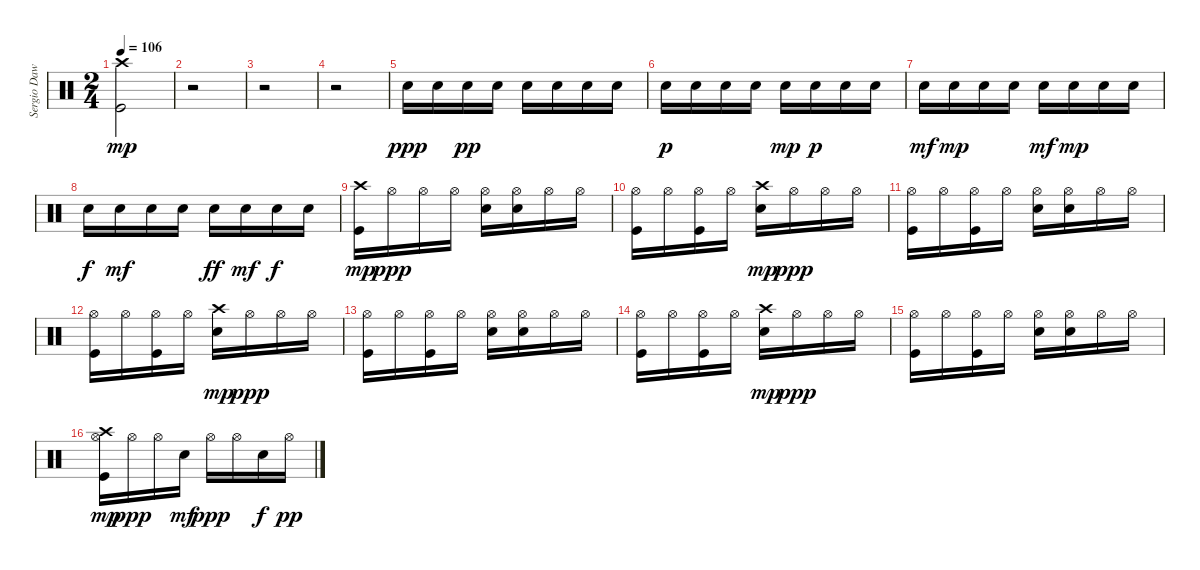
\track ("Sergio Dawi" "Sergio Daw") {instrument percussion}
\staff {score}
\articulation defaults
\ts (2 4)
\tempo 106
\clef neutral
\ks c
("Kick (hit)" "Crash high (hit)").2{dy mp} |
r.2 |
r.2 |
r.2 |
"Electric Snare (hit)".16{dy ppp} "Electric Snare (hit)".16 "Electric Snare (hit)".16{dy pp} "Electric Snare (hit)".16 "Electric Snare (hit)".16 "Electric Snare (hit)".16 "Electric Snare (hit)".16 "Electric Snare (hit)".16 |
"Electric Snare (hit)".16{dy p} "Electric Snare (hit)".16 "Electric Snare (hit)".16 "Electric Snare (hit)".16 "Electric Snare (hit)".16{dy mp} "Electric Snare (hit)".16{dy p} "Electric Snare (hit)".16 "Electric Snare (hit)".16 |
"Electric Snare (hit)".16{dy mf} "Electric Snare (hit)".16{dy mp} "Electric Snare (hit)".16 "Electric Snare (hit)".16 "Electric Snare (hit)".16{dy mf} "Electric Snare (hit)".16{dy mp} "Electric Snare (hit)".16 "Electric Snare (hit)".16 |
"Electric Snare (hit)".16{dy f} "Electric Snare (hit)".16{dy mf} "Electric Snare (hit)".16 "Electric Snare (hit)".16 "Electric Snare (hit)".16{dy ff} "Electric Snare (hit)".16{dy mf} "Electric Snare (hit)".16{dy f} "Electric Snare (hit)".16 |
("Kick (hit)" "Crash high (hit)").16{dy mp} "Hi-Hat (open)".16{dy ppp} "Hi-Hat (open)".16 "Hi-Hat (open)".16 ("Electric Snare (hit)" "Hi-Hat (open)").16 ("Electric Snare (hit)" "Hi-Hat (open)").16 "Hi-Hat (open)".16 "Hi-Hat (open)".16 |
("Kick (hit)" "Hi-Hat (open)").16 "Hi-Hat (open)".16 ("Kick (hit)" "Hi-Hat (open)").16 "Hi-Hat (open)".16 ("Electric Snare (hit)" "Crash high (hit)").16{dy mp} "Hi-Hat (open)".16{dy ppp} "Hi-Hat (open)".16 "Hi-Hat (open)".16 |
("Kick (hit)" "Hi-Hat (open)").16 "Hi-Hat (open)".16 ("Kick (hit)" "Hi-Hat (open)").16 "Hi-Hat (open)".16 ("Electric Snare (hit)" "Hi-Hat (open)").16 ("Electric Snare (hit)" "Hi-Hat (open)").16 "Hi-Hat (open)".16 "Hi-Hat (open)".16 |
("Kick (hit)" "Hi-Hat (open)").16 "Hi-Hat (open)".16 ("Kick (hit)" "Hi-Hat (open)").16 "Hi-Hat (open)".16 ("Electric Snare (hit)" "Crash high (hit)").16{dy mp} "Hi-Hat (open)".16{dy ppp} "Hi-Hat (open)".16 "Hi-Hat (open)".16 |
("Kick (hit)" "Hi-Hat (open)").16 "Hi-Hat (open)".16 ("Kick (hit)" "Hi-Hat (open)").16 "Hi-Hat (open)".16 ("Electric Snare (hit)" "Hi-Hat (open)").16 ("Electric Snare (hit)" "Hi-Hat (open)").16 "Hi-Hat (open)".16 "Hi-Hat (open)".16 |
("Kick (hit)" "Hi-Hat (open)").16 "Hi-Hat (open)".16 ("Kick (hit)" "Hi-Hat (open)").16 "Hi-Hat (open)".16 ("Electric Snare (hit)" "Crash high (hit)").16{dy mp} "Hi-Hat (open)".16{dy ppp} "Hi-Hat (open)".16 "Hi-Hat (open)".16 |
("Kick (hit)" "Hi-Hat (open)").16 "Hi-Hat (open)".16 ("Kick (hit)" "Hi-Hat (open)").16 "Hi-Hat (open)".16 ("Electric Snare (hit)" "Hi-Hat (open)").16 ("Electric Snare (hit)" "Hi-Hat (open)").16 "Hi-Hat (open)".16 "Hi-Hat (open)".16 |
("Kick (hit)" "Hi-Hat (open)" "Crash high (hit)").16{dy mp} "Hi-Hat (open)".16{dy ppp} "Hi-Hat (open)".16 "Electric Snare (hit)".16{dy mf} "Hi-Hat (open)".16{dy ppp} "Hi-Hat (open)".16 "Electric Snare (hit)".16{dy f} "Hi-Hat (open)".16{dy pp}
